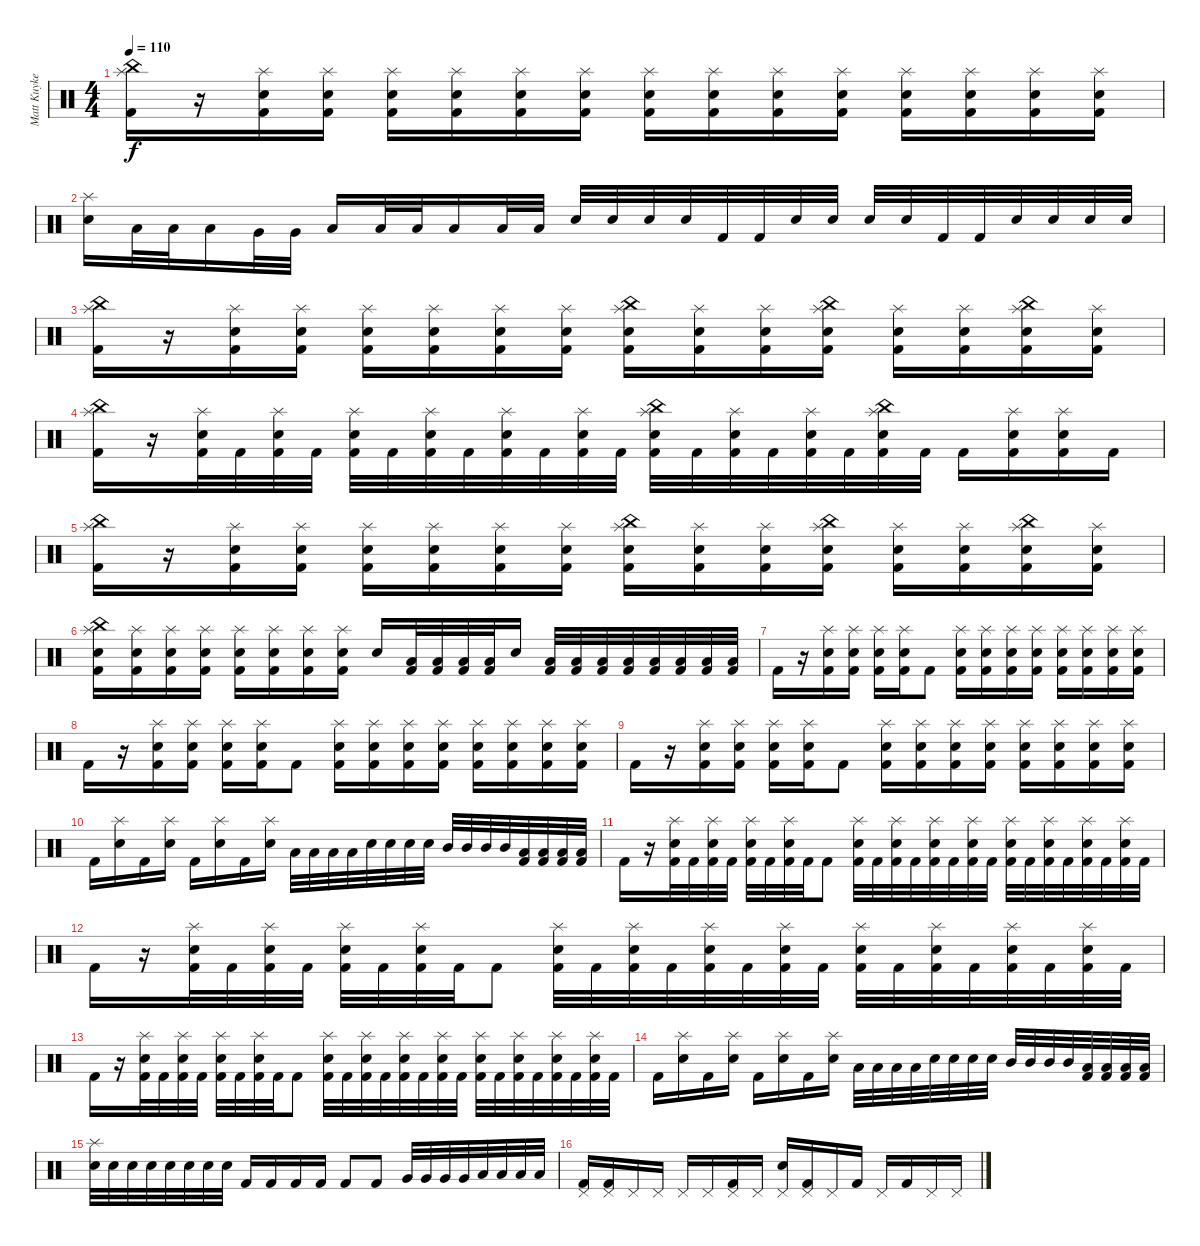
\track ("Matt Kuykendall (Drums)" "Matt Kuyke") {instrument percussion}
\staff {score}
\articulation defaults
\ts (4 4)
\tempo 110
\clef neutral
\ks c
("China (hit)" "Splash (hit)" "Kick (hit) 2").16{dy f} r.16 ("Splash (hit)" "Snare (hit) 2" "Kick (hit) 2").16 ("Splash (hit)" "Snare (hit) 2" "Kick (hit) 2").16 ("Splash (hit)" "Snare (hit) 2" "Kick (hit) 2").16 ("Splash (hit)" "Snare (hit) 2" "Kick (hit) 2").16 ("Splash (hit)" "Snare (hit) 2" "Kick (hit) 2").16 ("Splash (hit)" "Snare (hit) 2" "Kick (hit) 2").16 ("Splash (hit)" "Snare (hit) 2" "Kick (hit) 2").16 ("Splash (hit)" "Snare (hit) 2" "Kick (hit) 2").16 ("Splash (hit)" "Snare (hit) 2" "Kick (hit) 2").16 ("Splash (hit)" "Snare (hit) 2" "Kick (hit) 2").16 ("Splash (hit)" "Snare (hit) 2" "Kick (hit) 2").16 ("Splash (hit)" "Snare (hit) 2" "Kick (hit) 2").16 ("Splash (hit)" "Snare (hit) 2" "Kick (hit) 2").16 ("Splash (hit)" "Snare (hit) 2" "Kick (hit) 2").16 |
("Splash (hit)" "Snare (hit) 2").16 "Low Floor Tom (hit)".32 "Low Floor Tom (hit)".32 "Low Floor Tom (hit)".16 "Very Low Tom (hit)".32 "Very Low Tom (hit)".32 "Low Floor Tom (hit)".16 "Low Tom (hit)".32 "Low Tom (hit)".32 "Low Floor Tom (hit)".16 "Low Floor Tom (hit)".32 "Low Floor Tom (hit)".32 "Snare (hit) 2".32 "Snare (hit) 2".32 "Snare (hit) 2".32 "Snare (hit) 2".32 "Kick (hit) 2".32 "Kick (hit) 2".32 "Snare (hit) 2".32 "Snare (hit) 2".32 "Snare (hit) 2".32 "Snare (hit) 2".32 "Kick (hit) 2".32 "Kick (hit) 2".32 "Snare (hit) 2".32 "Snare (hit) 2".32 "Snare (hit) 2".32 "Snare (hit) 2".32 |
("China (hit)" "Splash (hit)" "Kick (hit) 2").16 r.16 ("Splash (hit)" "Snare (hit) 2" "Kick (hit) 2").16 ("Splash (hit)" "Snare (hit) 2" "Kick (hit) 2").16 ("Splash (hit)" "Snare (hit) 2" "Kick (hit) 2").16 ("Splash (hit)" "Snare (hit) 2" "Kick (hit) 2").16 ("Splash (hit)" "Snare (hit) 2" "Kick (hit) 2").16 ("Splash (hit)" "Snare (hit) 2" "Kick (hit) 2").16 ("China (hit)" "Splash (hit)" "Snare (hit) 2" "Kick (hit) 2").16 ("Splash (hit)" "Snare (hit) 2" "Kick (hit) 2").16 ("Splash (hit)" "Snare (hit) 2" "Kick (hit) 2").16 ("China (hit)" "Splash (hit)" "Snare (hit) 2" "Kick (hit) 2").16 ("Splash (hit)" "Snare (hit) 2" "Kick (hit) 2").16 ("Splash (hit)" "Snare (hit) 2" "Kick (hit) 2").16 ("China (hit)" "Splash (hit)" "Snare (hit) 2" "Kick (hit) 2").16 ("Splash (hit)" "Snare (hit) 2" "Kick (hit) 2").16 |
("China (hit)" "Splash (hit)" "Kick (hit) 2").16 r.16 ("Splash (hit)" "Snare (hit) 2" "Kick (hit) 2").32 "Kick (hit) 2".32 ("Splash (hit)" "Snare (hit) 2" "Kick (hit) 2").32 "Kick (hit) 2".32 ("Splash (hit)" "Snare (hit) 2" "Kick (hit) 2").32 "Kick (hit) 2".32 ("Splash (hit)" "Snare (hit) 2" "Kick (hit) 2").32 "Kick (hit) 2".32 ("Splash (hit)" "Snare (hit) 2" "Kick (hit) 2").32 "Kick (hit) 2".32 ("Splash (hit)" "Snare (hit) 2" "Kick (hit) 2").32 "Kick (hit) 2".32 ("China (hit)" "Splash (hit)" "Snare (hit) 2" "Kick (hit) 2").32 "Kick (hit) 2".32 ("Splash (hit)" "Snare (hit) 2" "Kick (hit) 2").32 "Kick (hit) 2".32 ("Splash (hit)" "Snare (hit) 2" "Kick (hit) 2").32 "Kick (hit) 2".32 ("China (hit)" "Splash (hit)" "Snare (hit) 2" "Kick (hit) 2").32 "Kick (hit) 2".32 "Kick (hit) 2".16 ("Splash (hit)" "Snare (hit) 2" "Kick (hit) 2").16 ("Splash (hit)" "Snare (hit) 2" "Kick (hit) 2").16 "Kick (hit) 2".16 |
("China (hit)" "Splash (hit)" "Kick (hit) 2").16 r.16 ("Splash (hit)" "Snare (hit) 2" "Kick (hit) 2").16 ("Splash (hit)" "Snare (hit) 2" "Kick (hit) 2").16 ("Splash (hit)" "Snare (hit) 2" "Kick (hit) 2").16 ("Splash (hit)" "Snare (hit) 2" "Kick (hit) 2").16 ("Splash (hit)" "Snare (hit) 2" "Kick (hit) 2").16 ("Splash (hit)" "Snare (hit) 2" "Kick (hit) 2").16 ("China (hit)" "Splash (hit)" "Snare (hit) 2" "Kick (hit) 2").16 ("Splash (hit)" "Snare (hit) 2" "Kick (hit) 2").16 ("Splash (hit)" "Snare (hit) 2" "Kick (hit) 2").16 ("China (hit)" "Splash (hit)" "Snare (hit) 2" "Kick (hit) 2").16 ("Splash (hit)" "Snare (hit) 2" "Kick (hit) 2").16 ("Splash (hit)" "Snare (hit) 2" "Kick (hit) 2").16 ("China (hit)" "Splash (hit)" "Snare (hit) 2" "Kick (hit) 2").16 ("Splash (hit)" "Snare (hit) 2" "Kick (hit) 2").16 |
("China (hit)" "Splash (hit)" "Snare (hit) 2" "Kick (hit) 2").16 ("Splash (hit)" "Snare (hit) 2" "Kick (hit) 2").16 ("Splash (hit)" "Snare (hit) 2" "Kick (hit) 2").16 ("Splash (hit)" "Snare (hit) 2" "Kick (hit) 2").16 ("Splash (hit)" "Snare (hit) 2" "Kick (hit) 2").16 ("Splash (hit)" "Snare (hit) 2" "Kick (hit) 2").16 ("Splash (hit)" "Snare (hit) 2" "Kick (hit) 2").16 ("Splash (hit)" "Snare (hit) 2" "Kick (hit) 2").16 "Snare (hit) 2".16 ("Low Floor Tom (hit)" "Kick (hit) 2").32 ("Low Floor Tom (hit)" "Kick (hit) 2").32 ("Low Floor Tom (hit)" "Kick (hit) 2").32 ("Low Floor Tom (hit)" "Kick (hit) 2").32 "Snare (hit) 2".16 ("Low Floor Tom (hit)" "Kick (hit) 2").32 ("Low Floor Tom (hit)" "Kick (hit) 2").32 ("Low Floor Tom (hit)" "Kick (hit) 2").32 ("Low Floor Tom (hit)" "Kick (hit) 2").32 ("Low Floor Tom (hit)" "Kick (hit) 2").32 ("Low Floor Tom (hit)" "Kick (hit) 2").32 ("Low Floor Tom (hit)" "Kick (hit) 2").32 ("Low Floor Tom (hit)" "Kick (hit) 2").32 |
"Kick (hit) 2".16 r.16 ("Splash (hit)" "Snare (hit) 2" "Kick (hit) 2").16 ("Splash (hit)" "Snare (hit) 2" "Kick (hit) 2").16 ("Splash (hit)" "Snare (hit) 2" "Kick (hit) 2").16 ("Splash (hit)" "Snare (hit) 2" "Kick (hit) 2").16 "Kick (hit) 2".8 ("Splash (hit)" "Snare (hit) 2" "Kick (hit) 2").16 ("Splash (hit)" "Snare (hit) 2" "Kick (hit) 2").16 ("Splash (hit)" "Snare (hit) 2" "Kick (hit) 2").16 ("Splash (hit)" "Snare (hit) 2" "Kick (hit) 2").16 ("Splash (hit)" "Snare (hit) 2" "Kick (hit) 2").16 ("Splash (hit)" "Snare (hit) 2" "Kick (hit) 2").16 ("Splash (hit)" "Snare (hit) 2" "Kick (hit) 2").16 ("Splash (hit)" "Snare (hit) 2" "Kick (hit) 2").16 |
"Kick (hit) 2".16 r.16 ("Splash (hit)" "Snare (hit) 2" "Kick (hit) 2").16 ("Splash (hit)" "Snare (hit) 2" "Kick (hit) 2").16 ("Splash (hit)" "Snare (hit) 2" "Kick (hit) 2").16 ("Splash (hit)" "Snare (hit) 2" "Kick (hit) 2").16 "Kick (hit) 2".8 ("Splash (hit)" "Snare (hit) 2" "Kick (hit) 2").16 ("Splash (hit)" "Snare (hit) 2" "Kick (hit) 2").16 ("Splash (hit)" "Snare (hit) 2" "Kick (hit) 2").16 ("Splash (hit)" "Snare (hit) 2" "Kick (hit) 2").16 ("Splash (hit)" "Snare (hit) 2" "Kick (hit) 2").16 ("Splash (hit)" "Snare (hit) 2" "Kick (hit) 2").16 ("Splash (hit)" "Snare (hit) 2" "Kick (hit) 2").16 ("Splash (hit)" "Snare (hit) 2" "Kick (hit) 2").16 |
"Kick (hit) 2".16 r.16 ("Splash (hit)" "Snare (hit) 2" "Kick (hit) 2").16 ("Splash (hit)" "Snare (hit) 2" "Kick (hit) 2").16 ("Splash (hit)" "Snare (hit) 2" "Kick (hit) 2").16 ("Splash (hit)" "Snare (hit) 2" "Kick (hit) 2").16 "Kick (hit) 2".8 ("Splash (hit)" "Snare (hit) 2" "Kick (hit) 2").16 ("Splash (hit)" "Snare (hit) 2" "Kick (hit) 2").16 ("Splash (hit)" "Snare (hit) 2" "Kick (hit) 2").16 ("Splash (hit)" "Snare (hit) 2" "Kick (hit) 2").16 ("Splash (hit)" "Snare (hit) 2" "Kick (hit) 2").16 ("Splash (hit)" "Snare (hit) 2" "Kick (hit) 2").16 ("Splash (hit)" "Snare (hit) 2" "Kick (hit) 2").16 ("Splash (hit)" "Snare (hit) 2" "Kick (hit) 2").16 |
"Kick (hit) 2".16 ("Splash (hit)" "Snare (hit) 2").16 "Kick (hit) 2".16 ("Splash (hit)" "Snare (hit) 2").16 "Kick (hit) 2".16 ("Splash (hit)" "Snare (hit) 2").16 "Kick (hit) 2".16 ("Splash (hit)" "Snare (hit) 2").16 "Low Floor Tom (hit)".32 "Low Floor Tom (hit)".32 "Low Floor Tom (hit)".32 "Low Floor Tom (hit)".32 "Snare (hit) 2".32 "Snare (hit) 2".32 "Snare (hit) 2".32 "Snare (hit) 2".32 "Mid Tom (hit)".32 "Mid Tom (hit)".32 "Mid Tom (hit)".32 "Mid Tom (hit)".32 ("Low Floor Tom (hit)" "Kick (hit) 2").32 ("Low Floor Tom (hit)" "Kick (hit) 2").32 ("Low Floor Tom (hit)" "Kick (hit) 2").32 ("Low Floor Tom (hit)" "Kick (hit) 2").32 |
"Kick (hit) 2".16 r.16 ("Splash (hit)" "Snare (hit) 2" "Kick (hit) 2").32 "Kick (hit) 2".32 ("Splash (hit)" "Snare (hit) 2" "Kick (hit) 2").32 "Kick (hit) 2".32 ("Splash (hit)" "Snare (hit) 2" "Kick (hit) 2").32 "Kick (hit) 2".32 ("Splash (hit)" "Snare (hit) 2" "Kick (hit) 2").32 "Kick (hit) 2".32 "Kick (hit) 2".8 ("Splash (hit)" "Snare (hit) 2" "Kick (hit) 2").32 "Kick (hit) 2".32 ("Splash (hit)" "Snare (hit) 2" "Kick (hit) 2").32 "Kick (hit) 2".32 ("Splash (hit)" "Snare (hit) 2" "Kick (hit) 2").32 "Kick (hit) 2".32 ("Splash (hit)" "Snare (hit) 2" "Kick (hit) 2").32 "Kick (hit) 2".32 ("Splash (hit)" "Snare (hit) 2" "Kick (hit) 2").32 "Kick (hit) 2".32 ("Splash (hit)" "Snare (hit) 2" "Kick (hit) 2").32 "Kick (hit) 2".32 ("Splash (hit)" "Snare (hit) 2" "Kick (hit) 2").32 "Kick (hit) 2".32 ("Splash (hit)" "Snare (hit) 2" "Kick (hit) 2").32 "Kick (hit) 2".32 |
"Kick (hit) 2".16 r.16 ("Splash (hit)" "Snare (hit) 2" "Kick (hit) 2").32 "Kick (hit) 2".32 ("Splash (hit)" "Snare (hit) 2" "Kick (hit) 2").32 "Kick (hit) 2".32 ("Splash (hit)" "Snare (hit) 2" "Kick (hit) 2").32 "Kick (hit) 2".32 ("Splash (hit)" "Snare (hit) 2" "Kick (hit) 2").32 "Kick (hit) 2".32 "Kick (hit) 2".8 ("Splash (hit)" "Snare (hit) 2" "Kick (hit) 2").32 "Kick (hit) 2".32 ("Splash (hit)" "Snare (hit) 2" "Kick (hit) 2").32 "Kick (hit) 2".32 ("Splash (hit)" "Snare (hit) 2" "Kick (hit) 2").32 "Kick (hit) 2".32 ("Splash (hit)" "Snare (hit) 2" "Kick (hit) 2").32 "Kick (hit) 2".32 ("Splash (hit)" "Snare (hit) 2" "Kick (hit) 2").32 "Kick (hit) 2".32 ("Splash (hit)" "Snare (hit) 2" "Kick (hit) 2").32 "Kick (hit) 2".32 ("Splash (hit)" "Snare (hit) 2" "Kick (hit) 2").32 "Kick (hit) 2".32 ("Splash (hit)" "Snare (hit) 2" "Kick (hit) 2").32 "Kick (hit) 2".32 |
"Kick (hit) 2".16 r.16 ("Splash (hit)" "Snare (hit) 2" "Kick (hit) 2").32 "Kick (hit) 2".32 ("Splash (hit)" "Snare (hit) 2" "Kick (hit) 2").32 "Kick (hit) 2".32 ("Splash (hit)" "Snare (hit) 2" "Kick (hit) 2").32 "Kick (hit) 2".32 ("Splash (hit)" "Snare (hit) 2" "Kick (hit) 2").32 "Kick (hit) 2".32 "Kick (hit) 2".8 ("Splash (hit)" "Snare (hit) 2" "Kick (hit) 2").32 "Kick (hit) 2".32 ("Splash (hit)" "Snare (hit) 2" "Kick (hit) 2").32 "Kick (hit) 2".32 ("Splash (hit)" "Snare (hit) 2" "Kick (hit) 2").32 "Kick (hit) 2".32 ("Splash (hit)" "Snare (hit) 2" "Kick (hit) 2").32 "Kick (hit) 2".32 ("Splash (hit)" "Snare (hit) 2" "Kick (hit) 2").32 "Kick (hit) 2".32 ("Splash (hit)" "Snare (hit) 2" "Kick (hit) 2").32 "Kick (hit) 2".32 ("Splash (hit)" "Snare (hit) 2" "Kick (hit) 2").32 "Kick (hit) 2".32 ("Splash (hit)" "Snare (hit) 2" "Kick (hit) 2").32 "Kick (hit) 2".32 |
"Kick (hit) 2".16 ("Splash (hit)" "Snare (hit) 2").16 "Kick (hit) 2".16 ("Splash (hit)" "Snare (hit) 2").16 "Kick (hit) 2".16 ("Splash (hit)" "Snare (hit) 2").16 "Kick (hit) 2".16 ("Splash (hit)" "Snare (hit) 2").16 "Low Floor Tom (hit)".32 "Low Floor Tom (hit)".32 "Low Floor Tom (hit)".32 "Low Floor Tom (hit)".32 "Snare (hit) 2".32 "Snare (hit) 2".32 "Snare (hit) 2".32 "Snare (hit) 2".32 "Mid Tom (hit)".32 "Mid Tom (hit)".32 "Mid Tom (hit)".32 "Mid Tom (hit)".32 ("Low Floor Tom (hit)" "Kick (hit) 2").32 ("Low Floor Tom (hit)" "Kick (hit) 2").32 ("Low Floor Tom (hit)" "Kick (hit) 2").32 ("Low Floor Tom (hit)" "Kick (hit) 2").32 |
("Splash (hit)" "Snare (hit) 2").32 "Snare (hit) 2".32 "Snare (hit) 2".32 "Snare (hit) 2".32 "Snare (hit) 2".32 "Snare (hit) 2".32 "Snare (hit) 2".32 "Snare (hit) 2".32 "Kick (hit) 2".16 "Kick (hit) 2".16 "Kick (hit) 2".16 "Kick (hit) 2".16 "Kick (hit) 2".8 "Kick (hit) 2".8 "Very Low Tom (hit)".32 "Very Low Tom (hit)".32 "Very Low Tom (hit)".32 "Very Low Tom (hit)".32 "Low Floor Tom (hit)".32 "Low Floor Tom (hit)".32 "Low Floor Tom (hit)".32 "Low Floor Tom (hit)".32 |
("Pedal Hi-Hat (hit)" "Kick (hit) 2").16 ("Pedal Hi-Hat (hit)" "Kick (hit) 2").16 "Pedal Hi-Hat (hit)".16 "Pedal Hi-Hat (hit)".16 "Pedal Hi-Hat (hit)".16 "Pedal Hi-Hat (hit)".16 ("Pedal Hi-Hat (hit)" "Kick (hit) 2").16 "Pedal Hi-Hat (hit)".16 ("Pedal Hi-Hat (hit)" "Snare (hit) 2").16 ("Pedal Hi-Hat (hit)" "Kick (hit) 2").16 "Pedal Hi-Hat (hit)".16 "Kick (hit) 2".16 "Pedal Hi-Hat (hit)".16 "Kick (hit) 2".16 "Pedal Hi-Hat (hit)".16 "Pedal Hi-Hat (hit)".16
